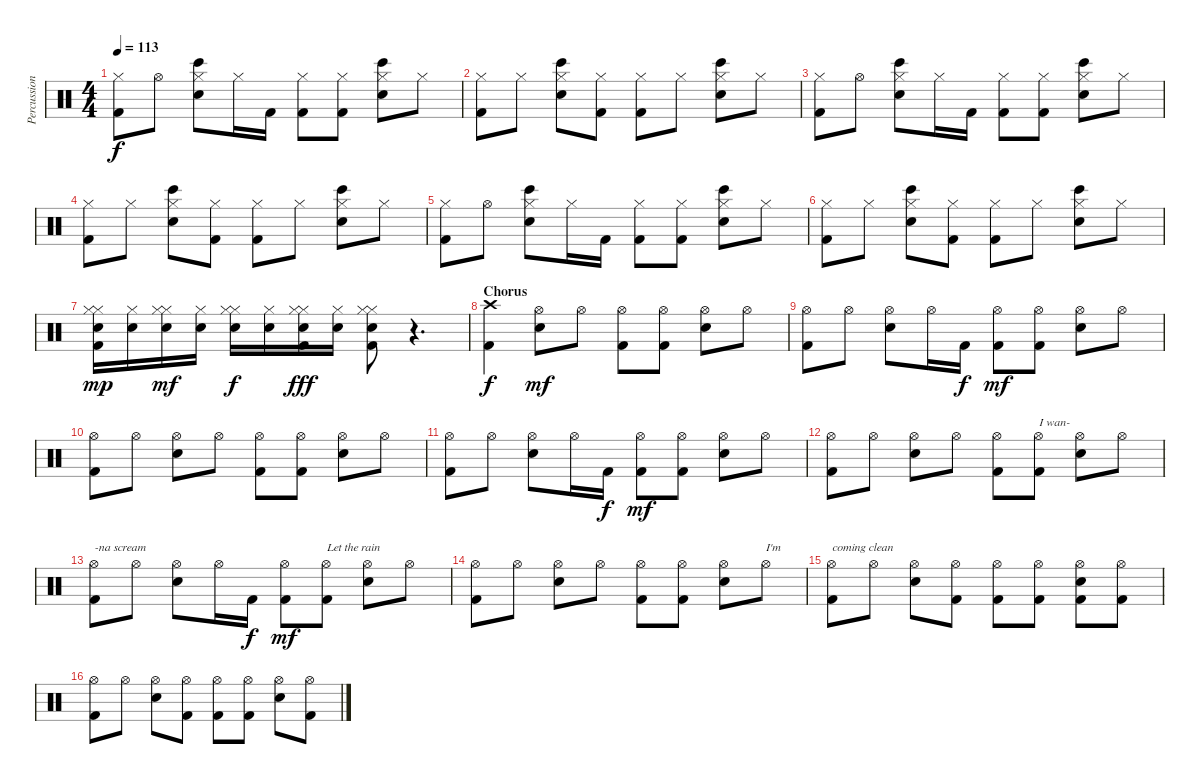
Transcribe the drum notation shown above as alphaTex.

\track ("Percussion" "Percussion") {instrument percussion}
\staff {score}
\articulation defaults
\ts (4 4)
\tempo 113
\clef neutral
\ks c
("Hi-Hat (closed)" "Kick (hit) 2").8{dy f} "Hi-Hat (open)".8 ("Hi-Hat (closed)" "Electric Snare (hit)" "Bongo High (hit)").8 "Hi-Hat (closed)".16 "Kick (hit) 2".16 ("Hi-Hat (closed)" "Kick (hit) 2").8 ("Hi-Hat (closed)" "Kick (hit) 2").8 ("Hi-Hat (closed)" "Electric Snare (hit)" "Bongo High (hit)").8 "Hi-Hat (closed)".8 |
("Hi-Hat (closed)" "Kick (hit) 2").8 "Hi-Hat (closed)".8 ("Hi-Hat (closed)" "Electric Snare (hit)" "Bongo High (hit)").8 ("Hi-Hat (closed)" "Kick (hit) 2").8 ("Hi-Hat (closed)" "Kick (hit) 2").8 "Hi-Hat (closed)".8 ("Hi-Hat (closed)" "Electric Snare (hit)" "Bongo High (hit)").8 "Hi-Hat (closed)".8 |
("Hi-Hat (closed)" "Kick (hit) 2").8 "Hi-Hat (open)".8 ("Hi-Hat (closed)" "Electric Snare (hit)" "Bongo High (hit)").8 "Hi-Hat (closed)".16 "Kick (hit) 2".16 ("Hi-Hat (closed)" "Kick (hit) 2").8 ("Hi-Hat (closed)" "Kick (hit) 2").8 ("Hi-Hat (closed)" "Electric Snare (hit)" "Bongo High (hit)").8 "Hi-Hat (closed)".8 |
("Hi-Hat (closed)" "Kick (hit) 2").8 "Hi-Hat (closed)".8 ("Hi-Hat (closed)" "Electric Snare (hit)" "Bongo High (hit)").8 ("Hi-Hat (closed)" "Kick (hit) 2").8 ("Hi-Hat (closed)" "Kick (hit) 2").8 "Hi-Hat (closed)".8 ("Hi-Hat (closed)" "Electric Snare (hit)" "Bongo High (hit)").8 "Hi-Hat (closed)".8 |
("Hi-Hat (closed)" "Kick (hit) 2").8 "Hi-Hat (open)".8 ("Hi-Hat (closed)" "Electric Snare (hit)" "Bongo High (hit)").8 "Hi-Hat (closed)".16 "Kick (hit) 2".16 ("Hi-Hat (closed)" "Kick (hit) 2").8 ("Hi-Hat (closed)" "Kick (hit) 2").8 ("Hi-Hat (closed)" "Electric Snare (hit)" "Bongo High (hit)").8 "Hi-Hat (closed)".8 |
("Hi-Hat (closed)" "Kick (hit) 2").8 "Hi-Hat (closed)".8 ("Hi-Hat (closed)" "Electric Snare (hit)" "Bongo High (hit)").8 ("Hi-Hat (closed)" "Kick (hit) 2").8 ("Hi-Hat (closed)" "Kick (hit) 2").8 "Hi-Hat (closed)".8 ("Hi-Hat (closed)" "Electric Snare (hit)" "Bongo High (hit)").8 "Hi-Hat (closed)".8 |
("Hi-Hat (closed)" "Hi-Hat (closed)" "Electric Snare (hit)" "Kick (hit) 2").16{dy mp} ("Hi-Hat (closed)" "Electric Snare (hit)").16 ("Hi-Hat (closed)" "Hi-Hat (closed)" "Electric Snare (hit)").16{dy mf} ("Hi-Hat (closed)" "Electric Snare (hit)").16 ("Hi-Hat (closed)" "Hi-Hat (closed)" "Electric Snare (hit)").16{dy f} ("Hi-Hat (closed)" "Electric Snare (hit)").16 ("Hi-Hat (closed)" "Hi-Hat (closed)" "Electric Snare (hit)" "Kick (hit) 2").16{dy fff} ("Hi-Hat (closed)" "Electric Snare (hit)").16 ("Hi-Hat (closed)" "Hi-Hat (closed)" "Electric Snare (hit)" "Kick (hit) 2").8 r.4{d} |
\section ("" "Chorus")
("Crash high (hit)" "Kick (hit) 2").4{dy f} ("Hi-Hat (open)" "Electric Snare (hit)").8{dy mf} "Hi-Hat (open)".8 ("Hi-Hat (open)" "Kick (hit) 2").8 ("Hi-Hat (open)" "Kick (hit) 2").8 ("Hi-Hat (open)" "Electric Snare (hit)").8 "Hi-Hat (open)".8 |
("Hi-Hat (open)" "Kick (hit) 2").8 "Hi-Hat (open)".8 ("Hi-Hat (open)" "Electric Snare (hit)").8 "Hi-Hat (open)".16 "Kick (hit) 2".16{dy f} ("Hi-Hat (open)" "Kick (hit) 2").8{dy mf} ("Hi-Hat (open)" "Kick (hit) 2").8 ("Hi-Hat (open)" "Electric Snare (hit)").8 "Hi-Hat (open)".8 |
("Hi-Hat (open)" "Kick (hit) 2").8 "Hi-Hat (open)".8 ("Hi-Hat (open)" "Electric Snare (hit)").8 "Hi-Hat (open)".8 ("Hi-Hat (open)" "Kick (hit) 2").8 ("Hi-Hat (open)" "Kick (hit) 2").8 ("Hi-Hat (open)" "Electric Snare (hit)").8 "Hi-Hat (open)".8 |
("Hi-Hat (open)" "Kick (hit) 2").8 "Hi-Hat (open)".8 ("Hi-Hat (open)" "Electric Snare (hit)").8 "Hi-Hat (open)".16 "Kick (hit) 2".16{dy f} ("Hi-Hat (open)" "Kick (hit) 2").8{dy mf} ("Hi-Hat (open)" "Kick (hit) 2").8 ("Hi-Hat (open)" "Electric Snare (hit)").8 "Hi-Hat (open)".8 |
("Hi-Hat (open)" "Kick (hit) 2").8 "Hi-Hat (open)".8 ("Hi-Hat (open)" "Electric Snare (hit)").8 "Hi-Hat (open)".8 ("Hi-Hat (open)" "Kick (hit) 2").8 ("Hi-Hat (open)" "Kick (hit) 2").8{txt "I wan-"} ("Hi-Hat (open)" "Electric Snare (hit)").8 "Hi-Hat (open)".8 |
("Hi-Hat (open)" "Kick (hit) 2").8{txt "-na scream"} "Hi-Hat (open)".8 ("Hi-Hat (open)" "Electric Snare (hit)").8 "Hi-Hat (open)".16 "Kick (hit) 2".16{dy f} ("Hi-Hat (open)" "Kick (hit) 2").8{dy mf} ("Hi-Hat (open)" "Kick (hit) 2").8{txt "Let the rain"} ("Hi-Hat (open)" "Electric Snare (hit)").8 "Hi-Hat (open)".8 |
("Hi-Hat (open)" "Kick (hit) 2").8 "Hi-Hat (open)".8 ("Hi-Hat (open)" "Electric Snare (hit)").8 "Hi-Hat (open)".8 ("Hi-Hat (open)" "Kick (hit) 2").8 ("Hi-Hat (open)" "Kick (hit) 2").8 ("Hi-Hat (open)" "Electric Snare (hit)").8 "Hi-Hat (open)".8{txt "I'm"} |
("Hi-Hat (open)" "Kick (hit) 2").8{txt "coming clean"} "Hi-Hat (open)".8 ("Hi-Hat (open)" "Electric Snare (hit)").8 ("Hi-Hat (open)" "Kick (hit) 2").8 ("Hi-Hat (open)" "Kick (hit) 2").8 ("Hi-Hat (open)" "Kick (hit) 2").8 ("Hi-Hat (open)" "Electric Snare (hit)" "Kick (hit) 2").8 ("Hi-Hat (open)" "Kick (hit) 2").8 |
("Hi-Hat (open)" "Kick (hit) 2").8 "Hi-Hat (open)".8 ("Hi-Hat (open)" "Electric Snare (hit)").8 ("Hi-Hat (open)" "Kick (hit) 2").8 ("Hi-Hat (open)" "Kick (hit) 2").8 ("Hi-Hat (open)" "Kick (hit) 2").8 ("Hi-Hat (open)" "Electric Snare (hit)").8 ("Hi-Hat (open)" "Kick (hit) 2").8
